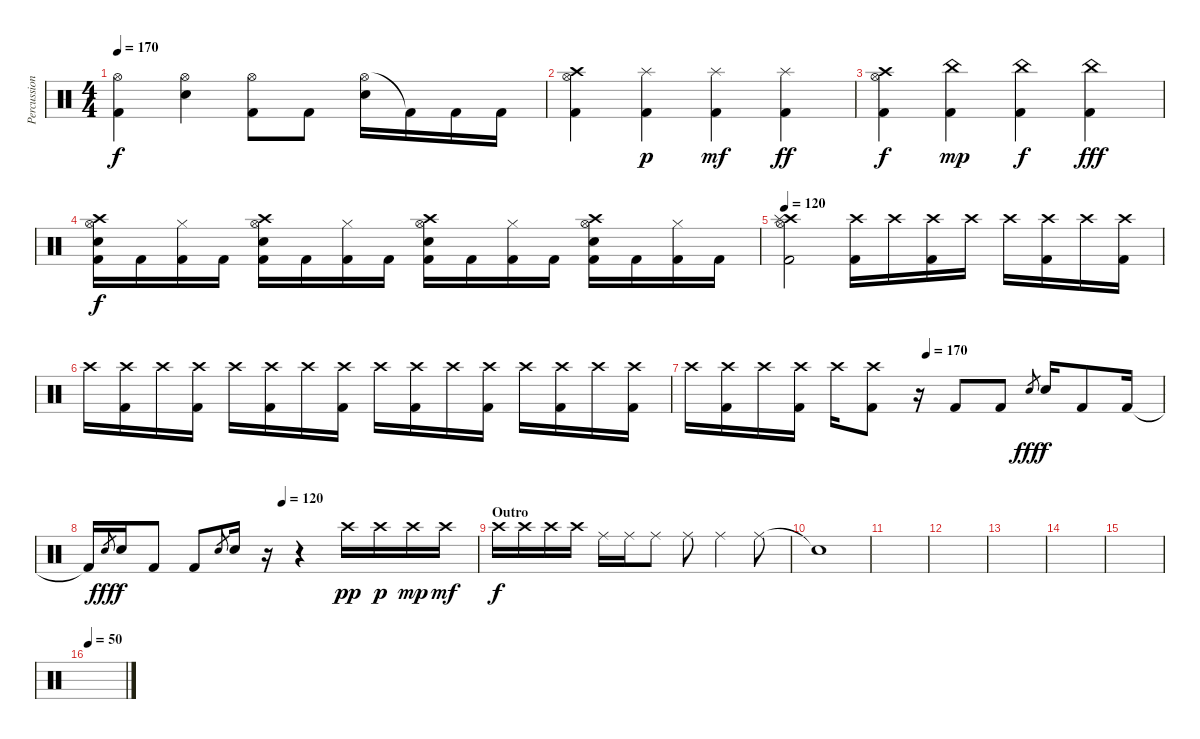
\track ("Percussion - Who the fuck knows" "Percussion") {instrument percussion}
\staff {score}
\articulation defaults
\ts (4 4)
\tempo 170
\clef neutral
\ks c
("Hi-Hat (open)" "Kick (hit) 2").4{dy f} ("Hi-Hat (open)" "Snare (hit) 2").4 ("Hi-Hat (open)" "Kick (hit) 2").8 "Kick (hit) 2".8 ("Hi-Hat (open)" "Snare (hit) 2").16 "Kick (hit) 2"{t}.16 "Kick (hit) 2".16 "Kick (hit) 2".16 |
("Crash high (hit)" "Kick (hit) 2" "Hi-Hat (open)").4 ("Splash (hit)" "Kick (hit) 2").4{dy p} ("Splash (hit)" "Kick (hit) 2").4{dy mf} ("Splash (hit)" "Kick (hit) 2").4{dy ff} |
("Crash high (hit)" "Kick (hit) 2" "Hi-Hat (open)").4{dy f} ("China (hit)" "Kick (hit) 2").4{dy mp} ("China (hit)" "Kick (hit) 2").4{dy f} ("China (hit)" "Kick (hit) 2").4{dy fff} |
("Crash high (hit)" "Snare (hit) 2" "Hi-Hat (open)" "Kick (hit) 2").16{dy f} "Kick (hit) 2".16 ("Hi-Hat (closed)" "Kick (hit) 2").16 "Kick (hit) 2".16 ("Crash high (hit)" "Snare (hit) 2" "Hi-Hat (open)" "Kick (hit) 2").16 "Kick (hit) 2".16 ("Hi-Hat (closed)" "Kick (hit) 2").16 "Kick (hit) 2".16 ("Crash high (hit)" "Snare (hit) 2" "Hi-Hat (open)" "Kick (hit) 2").16 "Kick (hit) 2".16 ("Hi-Hat (closed)" "Kick (hit) 2").16 "Kick (hit) 2".16 ("Crash high (hit)" "Snare (hit) 2" "Hi-Hat (open)" "Kick (hit) 2").16 "Kick (hit) 2".16 ("Hi-Hat (closed)" "Kick (hit) 2").16 "Kick (hit) 2".16 |
\tempo 120
("Hi-Hat (open)" "Crash high (hit)" "Splash (hit)" "Kick (hit) 2").2{volume 14} ("Kick (hit) 2" "Crash high (hit)").16 "Crash high (hit)".16 ("Kick (hit) 2" "Crash high (hit)").16 "Crash high (hit)".16 "Crash high (hit)".16 ("Kick (hit) 2" "Crash high (hit)").16 "Crash high (hit)".16 ("Kick (hit) 2" "Crash high (hit)").16 |
"Crash high (hit)".16 ("Kick (hit) 2" "Crash high (hit)").16 "Crash high (hit)".16 ("Kick (hit) 2" "Crash high (hit)").16 "Crash high (hit)".16 ("Kick (hit) 2" "Crash high (hit)").16 "Crash high (hit)".16 ("Kick (hit) 2" "Crash high (hit)").16 "Crash high (hit)".16 ("Kick (hit) 2" "Crash high (hit)").16 "Crash high (hit)".16 ("Kick (hit) 2" "Crash high (hit)").16 "Crash high (hit)".16 ("Kick (hit) 2" "Crash high (hit)").16 "Crash high (hit)".16 ("Kick (hit) 2" "Crash high (hit)").16 |
\tempo (170 0.5)
"Crash high (hit)".16 ("Kick (hit) 2" "Crash high (hit)").16 "Crash high (hit)".16 ("Kick (hit) 2" "Crash high (hit)").16 "Crash high (hit)".16 ("Kick (hit) 2" "Crash high (hit)").8 r.16 "Kick (hit) 2".8 "Kick (hit) 2".8 "Snare (hit) 2".8{gr dy fff} "Snare (hit) 2".16{dy f} "Kick (hit) 2".8 "Kick (hit) 2".16 |
\tempo (120 0.5)
"Kick (hit) 2"{t}.16 "Snare (hit) 2".8{gr dy fff} "Snare (hit) 2".16{dy f} "Kick (hit) 2".8 "Kick (hit) 2".8 "Snare (hit) 2".8{gr} "Snare (hit) 2".16 r.16 r.4 "Crash high (hit)".16{dy pp} "Crash high (hit)".16{dy p} "Crash high (hit)".16{dy mp} "Crash high (hit)".16{dy mf} |
\section ("" "Outro")
"Crash high (hit)".16{dy f} "Crash high (hit)".16 "Crash high (hit)".16 "Crash high (hit)".16 "Ride (middle)".16 "Ride (middle)".16 "Ride (middle)".8 "Ride (middle)".8 "Ride (middle)".4 "Ride (middle)".8 |
"Snare (hit)"{t}.1 |
|
|
|
|
|
\tempo 50
